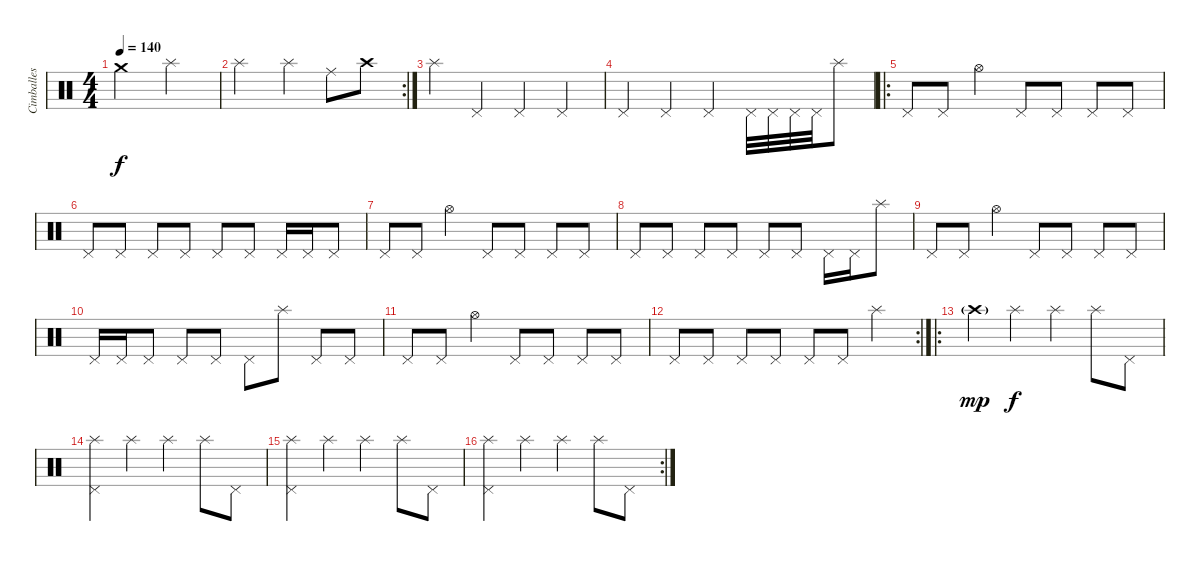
\track ("Cimballes" "Cimballes") {instrument percussion}
\staff {score}
\articulation defaults
\ts (4 4)
\tempo 140
\clef neutral
\ks c "Crash medium (hit)".2{dy f} "Splash (hit)".2
|
\rc 2 "Splash (hit)".2 "Splash (hit)".4 "Ride (middle)".8 "Crash high (hit)".8
|
"Splash (hit)".4 "Pedal Hi-Hat (hit)".4 "Pedal Hi-Hat (hit)".4 "Pedal Hi-Hat (hit)".4 |
"Pedal Hi-Hat (hit)".4 "Pedal Hi-Hat (hit)".4 "Pedal Hi-Hat (hit)".4 "Pedal Hi-Hat (hit)".32 "Pedal Hi-Hat (hit)".32 "Pedal Hi-Hat (hit)".32 "Pedal Hi-Hat (hit)".32 "Splash (hit)".8 |
\ro "Pedal Hi-Hat (hit)".8 "Pedal Hi-Hat (hit)".8 "Hi-Hat (open)".4 "Pedal Hi-Hat (hit)".8 "Pedal Hi-Hat (hit)".8 "Pedal Hi-Hat (hit)".8 "Pedal Hi-Hat (hit)".8
|
"Pedal Hi-Hat (hit)".8 "Pedal Hi-Hat (hit)".8 "Pedal Hi-Hat (hit)".8 "Pedal Hi-Hat (hit)".8 "Pedal Hi-Hat (hit)".8 "Pedal Hi-Hat (hit)".8 "Pedal Hi-Hat (hit)".16 "Pedal Hi-Hat (hit)".16 "Pedal Hi-Hat (hit)".8 |
"Pedal Hi-Hat (hit)".8 "Pedal Hi-Hat (hit)".8 "Hi-Hat (open)".4 "Pedal Hi-Hat (hit)".8 "Pedal Hi-Hat (hit)".8 "Pedal Hi-Hat (hit)".8 "Pedal Hi-Hat (hit)".8 |
"Pedal Hi-Hat (hit)".8 "Pedal Hi-Hat (hit)".8 "Pedal Hi-Hat (hit)".8 "Pedal Hi-Hat (hit)".8 "Pedal Hi-Hat (hit)".8 "Pedal Hi-Hat (hit)".8 "Pedal Hi-Hat (hit)".16 "Pedal Hi-Hat (hit)".16 "Splash (hit)".8 |
"Pedal Hi-Hat (hit)".8 "Pedal Hi-Hat (hit)".8 "Hi-Hat (open)".4 "Pedal Hi-Hat (hit)".8 "Pedal Hi-Hat (hit)".8 "Pedal Hi-Hat (hit)".8 "Pedal Hi-Hat (hit)".8 |
"Pedal Hi-Hat (hit)".16 "Pedal Hi-Hat (hit)".16 "Pedal Hi-Hat (hit)".8 "Pedal Hi-Hat (hit)".8 "Pedal Hi-Hat (hit)".8 "Pedal Hi-Hat (hit)".8 "Splash (hit)".8 "Pedal Hi-Hat (hit)".8 "Pedal Hi-Hat (hit)".8 |
"Pedal Hi-Hat (hit)".8 "Pedal Hi-Hat (hit)".8 "Hi-Hat (open)".4 "Pedal Hi-Hat (hit)".8 "Pedal Hi-Hat (hit)".8 "Pedal Hi-Hat (hit)".8 "Pedal Hi-Hat (hit)".8 |
\rc 2 "Pedal Hi-Hat (hit)".8 "Pedal Hi-Hat (hit)".8 "Pedal Hi-Hat (hit)".8 "Pedal Hi-Hat (hit)".8 "Pedal Hi-Hat (hit)".8 "Pedal Hi-Hat (hit)".8 "Splash (hit)".4
|
\ro "Crash high (hit)"{g}.4{dy mp} "Splash (hit)".4{dy f} "Splash (hit)".4 "Splash (hit)".8 "Pedal Hi-Hat (hit)".8
|
("Splash (hit)" "Pedal Hi-Hat (hit)").4 "Splash (hit)".4 "Splash (hit)".4 "Splash (hit)".8 "Pedal Hi-Hat (hit)".8 |
("Splash (hit)" "Pedal Hi-Hat (hit)").4 "Splash (hit)".4 "Splash (hit)".4 "Splash (hit)".8 "Pedal Hi-Hat (hit)".8 |
\rc 2
("Splash (hit)" "Pedal Hi-Hat (hit)").4 "Splash (hit)".4 "Splash (hit)".4 "Splash (hit)".8 "Pedal Hi-Hat (hit)".8
